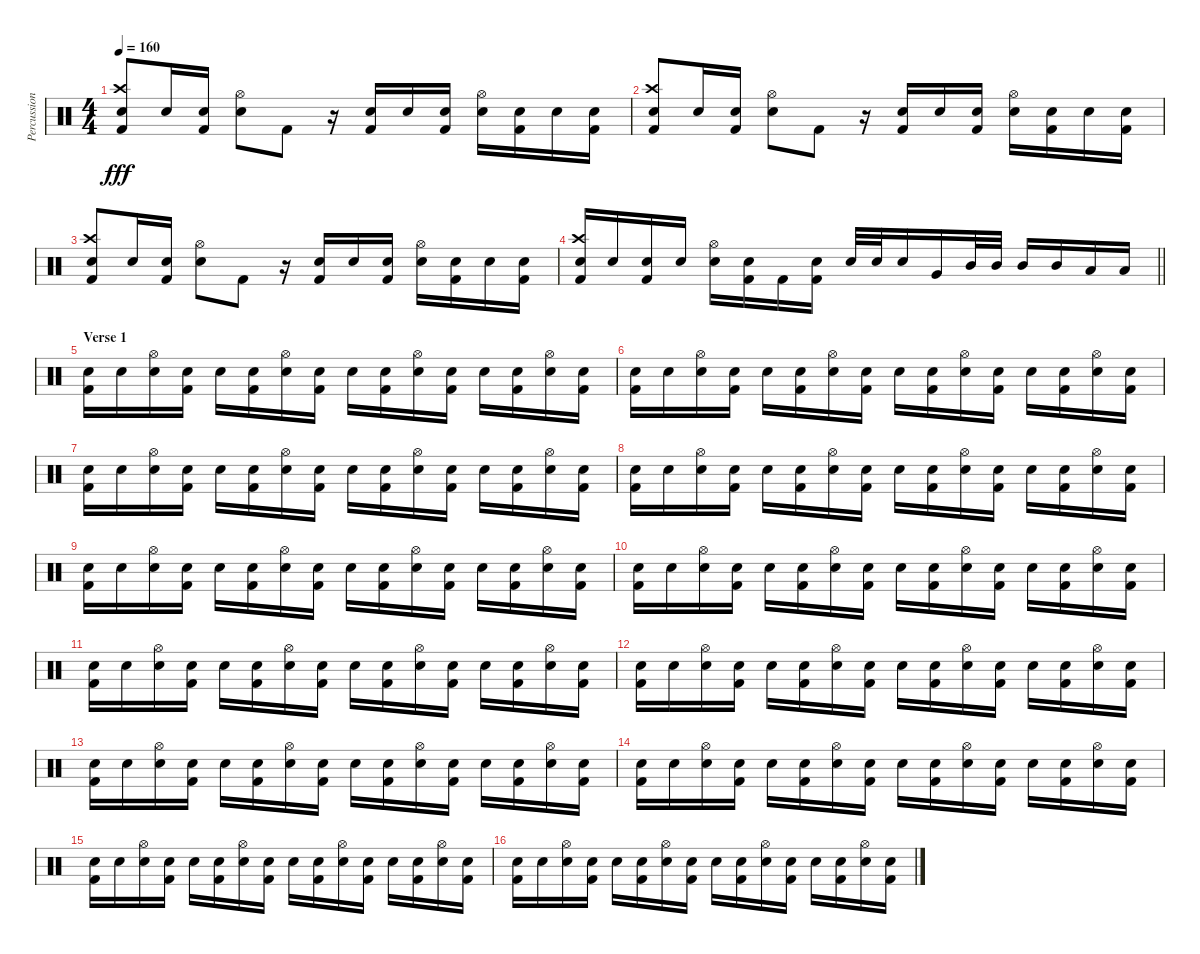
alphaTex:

\track ("Percussion" "Percussion") {instrument percussion}
\staff {score}
\articulation defaults
\ts (4 4)
\tempo 160
\clef neutral
\ks c
("Snare (hit) 2" "Crash high (hit)" "Kick (hit) 2").8{dy fff} "Snare (hit) 2".16 ("Snare (hit) 2" "Kick (hit) 2").16 ("Snare (hit) 2" "Hi-Hat (open)").8 "Kick (hit) 2".8 r.16 ("Snare (hit) 2" "Kick (hit) 2").16 "Snare (hit) 2".16 ("Snare (hit) 2" "Kick (hit) 2").16 ("Snare (hit) 2" "Hi-Hat (open)").16 ("Snare (hit) 2" "Kick (hit) 2").16 "Snare (hit) 2".16 ("Snare (hit) 2" "Kick (hit) 2").16 |
("Snare (hit) 2" "Crash high (hit)" "Kick (hit) 2").8 "Snare (hit) 2".16 ("Snare (hit) 2" "Kick (hit) 2").16 ("Snare (hit) 2" "Hi-Hat (open)").8 "Kick (hit) 2".8 r.16 ("Snare (hit) 2" "Kick (hit) 2").16 "Snare (hit) 2".16 ("Snare (hit) 2" "Kick (hit) 2").16 ("Snare (hit) 2" "Hi-Hat (open)").16 ("Snare (hit) 2" "Kick (hit) 2").16 "Snare (hit) 2".16 ("Snare (hit) 2" "Kick (hit) 2").16 |
("Snare (hit) 2" "Crash high (hit)" "Kick (hit) 2").8 "Snare (hit) 2".16 ("Snare (hit) 2" "Kick (hit) 2").16 ("Snare (hit) 2" "Hi-Hat (open)").8 "Kick (hit) 2".8 r.16 ("Snare (hit) 2" "Kick (hit) 2").16 "Snare (hit) 2".16 ("Snare (hit) 2" "Kick (hit) 2").16 ("Snare (hit) 2" "Hi-Hat (open)").16 ("Snare (hit) 2" "Kick (hit) 2").16 "Snare (hit) 2".16 ("Snare (hit) 2" "Kick (hit) 2").16 |
\barLineRight lightlight
("Snare (hit) 2" "Crash high (hit)" "Kick (hit) 2").16 "Snare (hit) 2".16 ("Snare (hit) 2" "Kick (hit) 2").16 "Snare (hit) 2".16 ("Snare (hit) 2" "Hi-Hat (open)").16 ("Snare (hit) 2" "Kick (hit) 2").16 "Kick (hit) 2".16 ("Snare (hit) 2" "Kick (hit) 2").16 "Snare (hit) 2".32 "Snare (hit) 2".32 "Snare (hit) 2".16 "Very Low Tom (hit)".16 "Mid Tom (hit)".32 "Mid Tom (hit)".32 "Mid Tom (hit)".16 "Mid Tom (hit)".16 "Low Tom (hit)".16 "Low Tom (hit)".16 |
\section ("" "Verse 1")
("Snare (hit) 2" "Kick (hit) 2").16{volume 7} "Snare (hit) 2".16 ("Snare (hit) 2" "Hi-Hat (open)").16 ("Snare (hit) 2" "Kick (hit) 2").16 "Snare (hit) 2".16 ("Snare (hit) 2" "Kick (hit) 2").16 ("Snare (hit) 2" "Hi-Hat (open)").16 ("Snare (hit) 2" "Kick (hit) 2").16 "Snare (hit) 2".16 ("Snare (hit) 2" "Kick (hit) 2").16 ("Snare (hit) 2" "Hi-Hat (open)").16 ("Snare (hit) 2" "Kick (hit) 2").16 "Snare (hit) 2".16 ("Snare (hit) 2" "Kick (hit) 2").16 ("Snare (hit) 2" "Hi-Hat (open)").16 ("Snare (hit) 2" "Kick (hit) 2").16 |
("Snare (hit) 2" "Kick (hit) 2").16 "Snare (hit) 2".16 ("Snare (hit) 2" "Hi-Hat (open)").16 ("Snare (hit) 2" "Kick (hit) 2").16 "Snare (hit) 2".16 ("Snare (hit) 2" "Kick (hit) 2").16 ("Snare (hit) 2" "Hi-Hat (open)").16 ("Snare (hit) 2" "Kick (hit) 2").16 "Snare (hit) 2".16 ("Snare (hit) 2" "Kick (hit) 2").16 ("Snare (hit) 2" "Hi-Hat (open)").16 ("Snare (hit) 2" "Kick (hit) 2").16 "Snare (hit) 2".16 ("Snare (hit) 2" "Kick (hit) 2").16 ("Snare (hit) 2" "Hi-Hat (open)").16 ("Snare (hit) 2" "Kick (hit) 2").16 |
("Snare (hit) 2" "Kick (hit) 2").16 "Snare (hit) 2".16 ("Snare (hit) 2" "Hi-Hat (open)").16 ("Snare (hit) 2" "Kick (hit) 2").16 "Snare (hit) 2".16 ("Snare (hit) 2" "Kick (hit) 2").16 ("Snare (hit) 2" "Hi-Hat (open)").16 ("Snare (hit) 2" "Kick (hit) 2").16 "Snare (hit) 2".16 ("Snare (hit) 2" "Kick (hit) 2").16 ("Snare (hit) 2" "Hi-Hat (open)").16 ("Snare (hit) 2" "Kick (hit) 2").16 "Snare (hit) 2".16 ("Snare (hit) 2" "Kick (hit) 2").16 ("Snare (hit) 2" "Hi-Hat (open)").16 ("Snare (hit) 2" "Kick (hit) 2").16 |
("Snare (hit) 2" "Kick (hit) 2").16 "Snare (hit) 2".16 ("Snare (hit) 2" "Hi-Hat (open)").16 ("Snare (hit) 2" "Kick (hit) 2").16 "Snare (hit) 2".16 ("Snare (hit) 2" "Kick (hit) 2").16 ("Snare (hit) 2" "Hi-Hat (open)").16 ("Snare (hit) 2" "Kick (hit) 2").16 "Snare (hit) 2".16 ("Snare (hit) 2" "Kick (hit) 2").16 ("Snare (hit) 2" "Hi-Hat (open)").16 ("Snare (hit) 2" "Kick (hit) 2").16 "Snare (hit) 2".16 ("Snare (hit) 2" "Kick (hit) 2").16 ("Snare (hit) 2" "Hi-Hat (open)").16 ("Snare (hit) 2" "Kick (hit) 2").16 |
("Snare (hit) 2" "Kick (hit) 2").16 "Snare (hit) 2".16 ("Snare (hit) 2" "Hi-Hat (open)").16 ("Snare (hit) 2" "Kick (hit) 2").16 "Snare (hit) 2".16 ("Snare (hit) 2" "Kick (hit) 2").16 ("Snare (hit) 2" "Hi-Hat (open)").16 ("Snare (hit) 2" "Kick (hit) 2").16 "Snare (hit) 2".16 ("Snare (hit) 2" "Kick (hit) 2").16 ("Snare (hit) 2" "Hi-Hat (open)").16 ("Snare (hit) 2" "Kick (hit) 2").16 "Snare (hit) 2".16 ("Snare (hit) 2" "Kick (hit) 2").16 ("Snare (hit) 2" "Hi-Hat (open)").16 ("Snare (hit) 2" "Kick (hit) 2").16 |
("Snare (hit) 2" "Kick (hit) 2").16 "Snare (hit) 2".16 ("Snare (hit) 2" "Hi-Hat (open)").16 ("Snare (hit) 2" "Kick (hit) 2").16 "Snare (hit) 2".16 ("Snare (hit) 2" "Kick (hit) 2").16 ("Snare (hit) 2" "Hi-Hat (open)").16 ("Snare (hit) 2" "Kick (hit) 2").16 "Snare (hit) 2".16 ("Snare (hit) 2" "Kick (hit) 2").16 ("Snare (hit) 2" "Hi-Hat (open)").16 ("Snare (hit) 2" "Kick (hit) 2").16 "Snare (hit) 2".16 ("Snare (hit) 2" "Kick (hit) 2").16 ("Snare (hit) 2" "Hi-Hat (open)").16 ("Snare (hit) 2" "Kick (hit) 2").16 |
("Snare (hit) 2" "Kick (hit) 2").16 "Snare (hit) 2".16 ("Snare (hit) 2" "Hi-Hat (open)").16 ("Snare (hit) 2" "Kick (hit) 2").16 "Snare (hit) 2".16 ("Snare (hit) 2" "Kick (hit) 2").16 ("Snare (hit) 2" "Hi-Hat (open)").16 ("Snare (hit) 2" "Kick (hit) 2").16 "Snare (hit) 2".16 ("Snare (hit) 2" "Kick (hit) 2").16 ("Snare (hit) 2" "Hi-Hat (open)").16 ("Snare (hit) 2" "Kick (hit) 2").16 "Snare (hit) 2".16 ("Snare (hit) 2" "Kick (hit) 2").16 ("Snare (hit) 2" "Hi-Hat (open)").16 ("Snare (hit) 2" "Kick (hit) 2").16 |
("Snare (hit) 2" "Kick (hit) 2").16 "Snare (hit) 2".16 ("Snare (hit) 2" "Hi-Hat (open)").16 ("Snare (hit) 2" "Kick (hit) 2").16 "Snare (hit) 2".16 ("Snare (hit) 2" "Kick (hit) 2").16 ("Snare (hit) 2" "Hi-Hat (open)").16 ("Snare (hit) 2" "Kick (hit) 2").16 "Snare (hit) 2".16 ("Snare (hit) 2" "Kick (hit) 2").16 ("Snare (hit) 2" "Hi-Hat (open)").16 ("Snare (hit) 2" "Kick (hit) 2").16 "Snare (hit) 2".16 ("Snare (hit) 2" "Kick (hit) 2").16 ("Snare (hit) 2" "Hi-Hat (open)").16 ("Snare (hit) 2" "Kick (hit) 2").16 |
("Snare (hit) 2" "Kick (hit) 2").16 "Snare (hit) 2".16 ("Snare (hit) 2" "Hi-Hat (open)").16 ("Snare (hit) 2" "Kick (hit) 2").16 "Snare (hit) 2".16 ("Snare (hit) 2" "Kick (hit) 2").16 ("Snare (hit) 2" "Hi-Hat (open)").16 ("Snare (hit) 2" "Kick (hit) 2").16 "Snare (hit) 2".16 ("Snare (hit) 2" "Kick (hit) 2").16 ("Snare (hit) 2" "Hi-Hat (open)").16 ("Snare (hit) 2" "Kick (hit) 2").16 "Snare (hit) 2".16 ("Snare (hit) 2" "Kick (hit) 2").16 ("Snare (hit) 2" "Hi-Hat (open)").16 ("Snare (hit) 2" "Kick (hit) 2").16 |
("Snare (hit) 2" "Kick (hit) 2").16 "Snare (hit) 2".16 ("Snare (hit) 2" "Hi-Hat (open)").16 ("Snare (hit) 2" "Kick (hit) 2").16 "Snare (hit) 2".16 ("Snare (hit) 2" "Kick (hit) 2").16 ("Snare (hit) 2" "Hi-Hat (open)").16 ("Snare (hit) 2" "Kick (hit) 2").16 "Snare (hit) 2".16 ("Snare (hit) 2" "Kick (hit) 2").16 ("Snare (hit) 2" "Hi-Hat (open)").16 ("Snare (hit) 2" "Kick (hit) 2").16 "Snare (hit) 2".16 ("Snare (hit) 2" "Kick (hit) 2").16 ("Snare (hit) 2" "Hi-Hat (open)").16 ("Snare (hit) 2" "Kick (hit) 2").16 |
("Snare (hit) 2" "Kick (hit) 2").16 "Snare (hit) 2".16 ("Snare (hit) 2" "Hi-Hat (open)").16 ("Snare (hit) 2" "Kick (hit) 2").16 "Snare (hit) 2".16 ("Snare (hit) 2" "Kick (hit) 2").16 ("Snare (hit) 2" "Hi-Hat (open)").16 ("Snare (hit) 2" "Kick (hit) 2").16 "Snare (hit) 2".16 ("Snare (hit) 2" "Kick (hit) 2").16 ("Snare (hit) 2" "Hi-Hat (open)").16 ("Snare (hit) 2" "Kick (hit) 2").16 "Snare (hit) 2".16 ("Snare (hit) 2" "Kick (hit) 2").16 ("Snare (hit) 2" "Hi-Hat (open)").16 ("Snare (hit) 2" "Kick (hit) 2").16 |
("Snare (hit) 2" "Kick (hit) 2").16 "Snare (hit) 2".16 ("Snare (hit) 2" "Hi-Hat (open)").16 ("Snare (hit) 2" "Kick (hit) 2").16 "Snare (hit) 2".16 ("Snare (hit) 2" "Kick (hit) 2").16 ("Snare (hit) 2" "Hi-Hat (open)").16 ("Snare (hit) 2" "Kick (hit) 2").16 "Snare (hit) 2".16 ("Snare (hit) 2" "Kick (hit) 2").16 ("Snare (hit) 2" "Hi-Hat (open)").16 ("Snare (hit) 2" "Kick (hit) 2").16 "Snare (hit) 2".16 ("Snare (hit) 2" "Kick (hit) 2").16 ("Snare (hit) 2" "Hi-Hat (open)").16 ("Snare (hit) 2" "Kick (hit) 2").16
